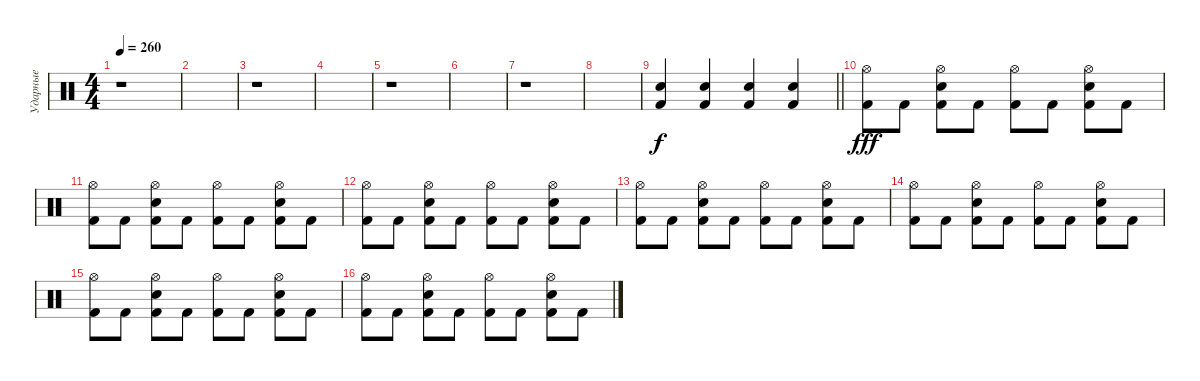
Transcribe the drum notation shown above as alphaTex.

\track ("Ударные" "Ударные") {instrument percussion}
\staff {score}
\articulation defaults
\ts (4 4)
\tempo 260
\clef neutral
\ks c
r.1{dy f} |
|
r.1 |
|
r.1 |
|
r.1 |
|
\barLineRight lightlight
("Kick (hit) 2" "Snare (hit) 2").4 ("Kick (hit) 2" "Snare (hit) 2").4 ("Kick (hit) 2" "Snare (hit) 2").4 ("Kick (hit) 2" "Snare (hit) 2").4 |
("Kick (hit) 2" "Hi-Hat (open)").8{dy fff} "Kick (hit) 2".8 ("Kick (hit) 2" "Snare (hit) 2" "Hi-Hat (open)").8 "Kick (hit) 2".8 ("Kick (hit) 2" "Hi-Hat (open)").8 "Kick (hit) 2".8 ("Kick (hit) 2" "Snare (hit) 2" "Hi-Hat (open)").8 "Kick (hit) 2".8 |
("Kick (hit) 2" "Hi-Hat (open)").8 "Kick (hit) 2".8 ("Kick (hit) 2" "Snare (hit) 2" "Hi-Hat (open)").8 "Kick (hit) 2".8 ("Kick (hit) 2" "Hi-Hat (open)").8 "Kick (hit) 2".8 ("Kick (hit) 2" "Snare (hit) 2" "Hi-Hat (open)").8 "Kick (hit) 2".8 |
("Kick (hit) 2" "Hi-Hat (open)").8 "Kick (hit) 2".8 ("Kick (hit) 2" "Snare (hit) 2" "Hi-Hat (open)").8 "Kick (hit) 2".8 ("Kick (hit) 2" "Hi-Hat (open)").8 "Kick (hit) 2".8 ("Kick (hit) 2" "Snare (hit) 2" "Hi-Hat (open)").8 "Kick (hit) 2".8 |
("Kick (hit) 2" "Hi-Hat (open)").8 "Kick (hit) 2".8 ("Kick (hit) 2" "Snare (hit) 2" "Hi-Hat (open)").8 "Kick (hit) 2".8 ("Kick (hit) 2" "Hi-Hat (open)").8 "Kick (hit) 2".8 ("Kick (hit) 2" "Snare (hit) 2" "Hi-Hat (open)").8 "Kick (hit) 2".8 |
("Kick (hit) 2" "Hi-Hat (open)").8 "Kick (hit) 2".8 ("Kick (hit) 2" "Snare (hit) 2" "Hi-Hat (open)").8 "Kick (hit) 2".8 ("Kick (hit) 2" "Hi-Hat (open)").8 "Kick (hit) 2".8 ("Kick (hit) 2" "Snare (hit) 2" "Hi-Hat (open)").8 "Kick (hit) 2".8 |
("Kick (hit) 2" "Hi-Hat (open)").8 "Kick (hit) 2".8 ("Kick (hit) 2" "Snare (hit) 2" "Hi-Hat (open)").8 "Kick (hit) 2".8 ("Kick (hit) 2" "Hi-Hat (open)").8 "Kick (hit) 2".8 ("Kick (hit) 2" "Snare (hit) 2" "Hi-Hat (open)").8 "Kick (hit) 2".8 |
("Kick (hit) 2" "Hi-Hat (open)").8 "Kick (hit) 2".8 ("Kick (hit) 2" "Snare (hit) 2" "Hi-Hat (open)").8 "Kick (hit) 2".8 ("Kick (hit) 2" "Hi-Hat (open)").8 "Kick (hit) 2".8 ("Kick (hit) 2" "Snare (hit) 2" "Hi-Hat (open)").8 "Kick (hit) 2".8
